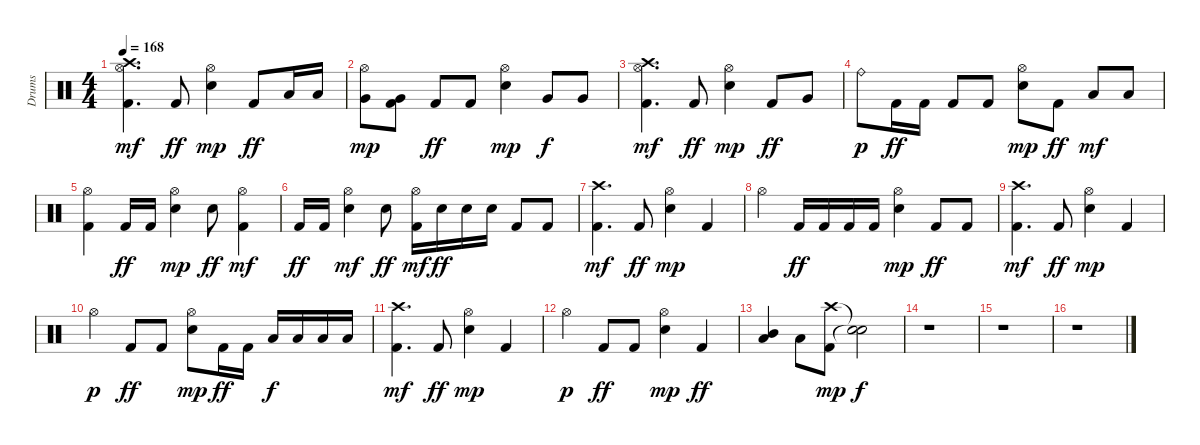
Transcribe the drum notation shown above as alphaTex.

\track ("Drums" "Drums") {instrument percussion}
\staff {score}
\articulation defaults
\ts (4 4)
\tempo 168
\clef neutral
\ks c
("Kick (hit) 2" "Hi-Hat (open)" "Crash high (hit)").4{d dy mf} "Kick (hit) 2".8{dy ff} ("Electric Snare (hit)" "Hi-Hat (open)").4{dy mp} "Kick (hit) 2".8{dy ff} "Low Tom (hit)".16 "Low Tom (hit)".16 |
("Very Low Tom (hit)" "Hi-Hat (open)").8{dy mp} ("Kick (hit) 2" "Very Low Tom (hit)").8 "Kick (hit) 2".8{dy ff} "Kick (hit) 2".8 ("Electric Snare (hit)" "Hi-Hat (open)").4{dy mp} "Very Low Tom (hit)".8{dy f} "Very Low Tom (hit)".8 |
("Kick (hit) 2" "Hi-Hat (open)" "Crash high (hit)").4{d dy mf} "Kick (hit) 2".8{dy ff} ("Electric Snare (hit)" "Hi-Hat (open)").4{dy mp} "Kick (hit) 2".8{dy ff} "Very Low Tom (hit)".8 |
"Ride (bell)".8{dy p} "Kick (hit) 2".16{dy ff} "Kick (hit) 2".16 "Kick (hit) 2".8 "Kick (hit) 2".8 ("Electric Snare (hit)" "Hi-Hat (open)").8{dy mp} "Kick (hit) 2".8{dy ff} "Low Floor Tom (hit)".8{dy mf} "Low Floor Tom (hit)".8 |
("Kick (hit) 2" "Hi-Hat (open)").4 "Kick (hit) 2".16{dy ff} "Kick (hit) 2".16 ("Electric Snare (hit)" "Hi-Hat (open)").4{dy mp} "Electric Snare (hit)".8{dy ff} ("Kick (hit) 2" "Hi-Hat (open)").4{dy mf} |
"Kick (hit) 2".16{dy ff} "Kick (hit) 2".16 ("Electric Snare (hit)" "Hi-Hat (open)").4{dy mf} "Electric Snare (hit)".8{dy ff} ("Kick (hit) 2" "Hi-Hat (open)").16{dy mf} "Electric Snare (hit)".16{dy ff} "Electric Snare (hit)".16 "Electric Snare (hit)".16 "Kick (hit) 2".8 "Kick (hit) 2".8 |
("Kick (hit) 2" "Crash high (hit)").4{d dy mf} "Kick (hit) 2".8{dy ff} ("Electric Snare (hit)" "Hi-Hat (open)").4{dy mp} "Kick (hit) 2".4 |
"Hi-Hat (open)".4 "Kick (hit) 2".16{dy ff} "Kick (hit) 2".16 "Kick (hit) 2".16 "Kick (hit) 2".16 ("Electric Snare (hit)" "Hi-Hat (open)").4{dy mp} "Kick (hit) 2".8{dy ff} "Kick (hit) 2".8 |
("Kick (hit) 2" "Crash high (hit)").4{d dy mf} "Kick (hit) 2".8{dy ff} ("Electric Snare (hit)" "Hi-Hat (open)").4{dy mp} "Kick (hit) 2".4 |
"Hi-Hat (open)".4{dy p} "Kick (hit) 2".8{dy ff} "Kick (hit) 2".8 ("Electric Snare (hit)" "Hi-Hat (open)").8{dy mp} "Kick (hit) 2".16{dy ff} "Kick (hit) 2".16 "Low Floor Tom (hit)".16{dy f} "Low Floor Tom (hit)".16 "Low Floor Tom (hit)".16 "Low Floor Tom (hit)".16 |
("Kick (hit) 2" "Crash high (hit)").4{d dy mf} "Kick (hit) 2".8{dy ff} ("Electric Snare (hit)" "Hi-Hat (open)").4{dy mp} "Kick (hit) 2".4 |
"Hi-Hat (open)".4{dy p} "Kick (hit) 2".8{dy ff} "Kick (hit) 2".8 ("Electric Snare (hit)" "Hi-Hat (open)").4{dy mp} "Kick (hit) 2".4{dy ff} |
("Low Tom (hit)" "Mid Tom (hit)").4 "Low Tom (hit)".8 ("Kick (hit) 2" "Crash high (hit)").8{dy mp} ("Snare (hit)"{t} "Snare (hit)"{t}).2{dy f} |
r.1 |
r.1 |
r.1
